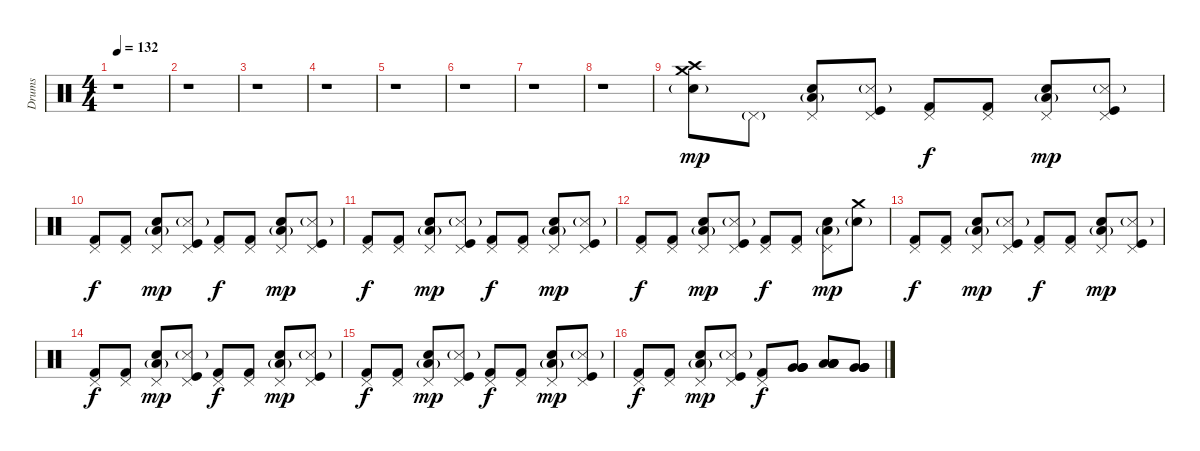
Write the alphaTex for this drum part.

\track ("Drums" "Drums") {instrument percussion}
\staff {score}
\articulation defaults
\ts (4 4)
\tempo 132
\clef neutral
\ks c
r.1{dy mp} |
r.1 |
r.1 |
r.1 |
r.1 |
r.1 |
r.1 |
r.1 |
("Crash medium (hit)" "Crash high (hit)" "Electric Snare (hit)"{g}).8 "Pedal Hi-Hat (hit)"{g}.8 ("Pedal Hi-Hat (hit)" "Electric Snare (hit)" "Low Tom (hit)"{g}).8 ("Pedal Hi-Hat (hit)" "Kick (hit)" "Snare (side stick) 3"{g}).8 ("Pedal Hi-Hat (hit)" "Kick (hit) 2").8{dy f} ("Pedal Hi-Hat (hit)" "Kick (hit) 2").8 ("Pedal Hi-Hat (hit)" "Electric Snare (hit)" "Low Tom (hit)"{g}).8{dy mp} ("Pedal Hi-Hat (hit)" "Kick (hit)" "Snare (side stick) 3"{g}).8 |
("Pedal Hi-Hat (hit)" "Kick (hit) 2").8{dy f} ("Pedal Hi-Hat (hit)" "Kick (hit) 2").8 ("Pedal Hi-Hat (hit)" "Electric Snare (hit)" "Low Tom (hit)"{g}).8{dy mp} ("Pedal Hi-Hat (hit)" "Kick (hit)" "Snare (side stick) 3"{g}).8 ("Pedal Hi-Hat (hit)" "Kick (hit) 2").8{dy f} ("Pedal Hi-Hat (hit)" "Kick (hit) 2").8 ("Pedal Hi-Hat (hit)" "Electric Snare (hit)" "Low Tom (hit)"{g}).8{dy mp} ("Pedal Hi-Hat (hit)" "Kick (hit)" "Snare (side stick) 3"{g}).8 |
("Pedal Hi-Hat (hit)" "Kick (hit) 2").8{dy f} ("Pedal Hi-Hat (hit)" "Kick (hit) 2").8 ("Pedal Hi-Hat (hit)" "Electric Snare (hit)" "Low Tom (hit)"{g}).8{dy mp} ("Pedal Hi-Hat (hit)" "Kick (hit)" "Snare (side stick) 3"{g}).8 ("Pedal Hi-Hat (hit)" "Kick (hit) 2").8{dy f} ("Pedal Hi-Hat (hit)" "Kick (hit) 2").8 ("Pedal Hi-Hat (hit)" "Electric Snare (hit)" "Low Tom (hit)"{g}).8{dy mp} ("Pedal Hi-Hat (hit)" "Kick (hit)" "Snare (side stick) 3"{g}).8 |
("Pedal Hi-Hat (hit)" "Kick (hit) 2").8{dy f} ("Pedal Hi-Hat (hit)" "Kick (hit) 2").8 ("Pedal Hi-Hat (hit)" "Electric Snare (hit)" "Low Tom (hit)"{g}).8{dy mp} ("Pedal Hi-Hat (hit)" "Kick (hit)" "Snare (side stick) 3"{g}).8 ("Pedal Hi-Hat (hit)" "Kick (hit) 2").8{dy f} ("Pedal Hi-Hat (hit)" "Kick (hit) 2").8 ("Pedal Hi-Hat (hit)" "Electric Snare (hit)" "Low Tom (hit)"{g}).8{dy mp} ("Crash medium (hit)" "Electric Snare (hit)"{g}).8 |
("Pedal Hi-Hat (hit)" "Kick (hit) 2").8{dy f} ("Pedal Hi-Hat (hit)" "Kick (hit) 2").8 ("Pedal Hi-Hat (hit)" "Electric Snare (hit)" "Low Tom (hit)"{g}).8{dy mp} ("Pedal Hi-Hat (hit)" "Kick (hit)" "Snare (side stick) 3"{g}).8 ("Pedal Hi-Hat (hit)" "Kick (hit) 2").8{dy f} ("Pedal Hi-Hat (hit)" "Kick (hit) 2").8 ("Pedal Hi-Hat (hit)" "Electric Snare (hit)" "Low Tom (hit)"{g}).8{dy mp} ("Pedal Hi-Hat (hit)" "Kick (hit)" "Snare (side stick) 3"{g}).8 |
("Pedal Hi-Hat (hit)" "Kick (hit) 2").8{dy f} ("Pedal Hi-Hat (hit)" "Kick (hit) 2").8 ("Pedal Hi-Hat (hit)" "Electric Snare (hit)" "Low Tom (hit)"{g}).8{dy mp} ("Pedal Hi-Hat (hit)" "Kick (hit)" "Snare (side stick) 3"{g}).8 ("Pedal Hi-Hat (hit)" "Kick (hit) 2").8{dy f} ("Pedal Hi-Hat (hit)" "Kick (hit) 2").8 ("Pedal Hi-Hat (hit)" "Electric Snare (hit)" "Low Tom (hit)"{g}).8{dy mp} ("Pedal Hi-Hat (hit)" "Kick (hit)" "Snare (side stick) 3"{g}).8 |
("Pedal Hi-Hat (hit)" "Kick (hit) 2").8{dy f} ("Pedal Hi-Hat (hit)" "Kick (hit) 2").8 ("Pedal Hi-Hat (hit)" "Electric Snare (hit)" "Low Tom (hit)"{g}).8{dy mp} ("Pedal Hi-Hat (hit)" "Kick (hit)" "Snare (side stick) 3"{g}).8 ("Pedal Hi-Hat (hit)" "Kick (hit) 2").8{dy f} ("Pedal Hi-Hat (hit)" "Kick (hit) 2").8 ("Pedal Hi-Hat (hit)" "Electric Snare (hit)" "Low Tom (hit)"{g}).8{dy mp} ("Pedal Hi-Hat (hit)" "Kick (hit)" "Snare (side stick) 3"{g}).8 |
("Pedal Hi-Hat (hit)" "Kick (hit) 2").8{dy f} ("Pedal Hi-Hat (hit)" "Kick (hit) 2").8 ("Pedal Hi-Hat (hit)" "Electric Snare (hit)" "Low Tom (hit)"{g}).8{dy mp} ("Pedal Hi-Hat (hit)" "Kick (hit)" "Snare (side stick) 3"{g}).8 ("Pedal Hi-Hat (hit)" "Kick (hit) 2").8{dy f} ("Very Low Tom (hit)" "Very Low Tom (hit)" "Very Low Tom (hit)" "Very Low Tom (hit)").8 ("Low Tom (hit)" "Low Tom (hit)" "Low Tom (hit)" "Low Tom (hit)").8 ("Very Low Tom (hit)" "Very Low Tom (hit)" "Very Low Tom (hit)" "Very Low Tom (hit)").8
